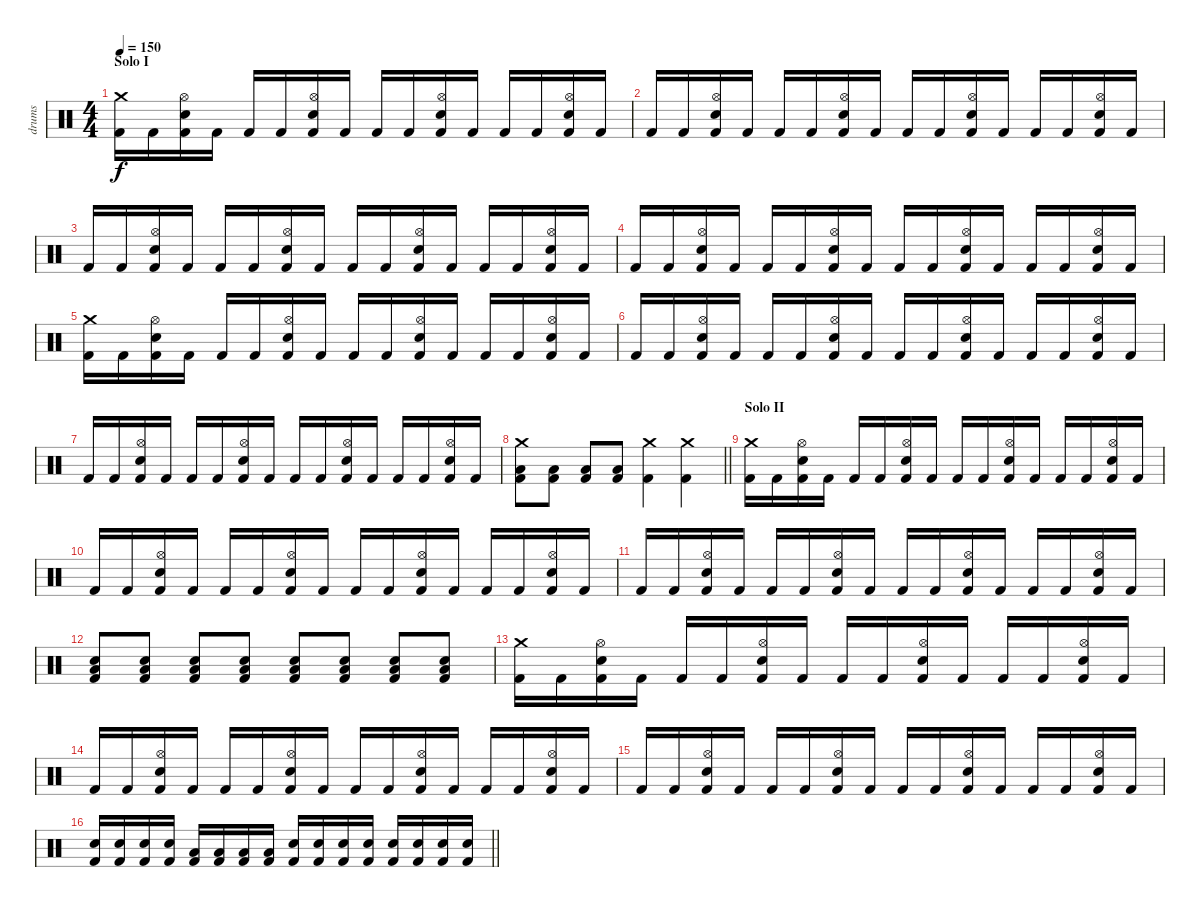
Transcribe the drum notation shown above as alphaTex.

\track ("drums" "drums") {instrument percussion}
\staff {score}
\articulation defaults
\ts (4 4)
\section ("" "Solo I")
\tempo 150
\clef neutral
\ks c
("Crash medium (hit)" "Kick (hit) 2").16{dy f} "Kick (hit) 2".16 ("Hi-Hat (open)" "Electric Snare (hit)" "Kick (hit) 2").16 "Kick (hit) 2".16 "Kick (hit) 2".16 "Kick (hit) 2".16 ("Hi-Hat (open)" "Electric Snare (hit)" "Kick (hit) 2").16 "Kick (hit) 2".16 "Kick (hit) 2".16 "Kick (hit) 2".16 ("Hi-Hat (open)" "Electric Snare (hit)" "Kick (hit) 2").16 "Kick (hit) 2".16 "Kick (hit) 2".16 "Kick (hit) 2".16 ("Hi-Hat (open)" "Electric Snare (hit)" "Kick (hit) 2").16 "Kick (hit) 2".16 |
"Kick (hit) 2".16 "Kick (hit) 2".16 ("Hi-Hat (open)" "Electric Snare (hit)" "Kick (hit) 2").16 "Kick (hit) 2".16 "Kick (hit) 2".16 "Kick (hit) 2".16 ("Hi-Hat (open)" "Electric Snare (hit)" "Kick (hit) 2").16 "Kick (hit) 2".16 "Kick (hit) 2".16 "Kick (hit) 2".16 ("Hi-Hat (open)" "Electric Snare (hit)" "Kick (hit) 2").16 "Kick (hit) 2".16 "Kick (hit) 2".16 "Kick (hit) 2".16 ("Hi-Hat (open)" "Electric Snare (hit)" "Kick (hit) 2").16 "Kick (hit) 2".16 |
"Kick (hit) 2".16 "Kick (hit) 2".16 ("Hi-Hat (open)" "Electric Snare (hit)" "Kick (hit) 2").16 "Kick (hit) 2".16 "Kick (hit) 2".16 "Kick (hit) 2".16 ("Hi-Hat (open)" "Electric Snare (hit)" "Kick (hit) 2").16 "Kick (hit) 2".16 "Kick (hit) 2".16 "Kick (hit) 2".16 ("Hi-Hat (open)" "Electric Snare (hit)" "Kick (hit) 2").16 "Kick (hit) 2".16 "Kick (hit) 2".16 "Kick (hit) 2".16 ("Hi-Hat (open)" "Electric Snare (hit)" "Kick (hit) 2").16 "Kick (hit) 2".16 |
"Kick (hit) 2".16 "Kick (hit) 2".16 ("Hi-Hat (open)" "Electric Snare (hit)" "Kick (hit) 2").16 "Kick (hit) 2".16 "Kick (hit) 2".16 "Kick (hit) 2".16 ("Hi-Hat (open)" "Electric Snare (hit)" "Kick (hit) 2").16 "Kick (hit) 2".16 "Kick (hit) 2".16 "Kick (hit) 2".16 ("Hi-Hat (open)" "Electric Snare (hit)" "Kick (hit) 2").16 "Kick (hit) 2".16 "Kick (hit) 2".16 "Kick (hit) 2".16 ("Hi-Hat (open)" "Electric Snare (hit)" "Kick (hit) 2").16 "Kick (hit) 2".16 |
("Crash medium (hit)" "Kick (hit) 2").16 "Kick (hit) 2".16 ("Hi-Hat (open)" "Electric Snare (hit)" "Kick (hit) 2").16 "Kick (hit) 2".16 "Kick (hit) 2".16 "Kick (hit) 2".16 ("Hi-Hat (open)" "Electric Snare (hit)" "Kick (hit) 2").16 "Kick (hit) 2".16 "Kick (hit) 2".16 "Kick (hit) 2".16 ("Hi-Hat (open)" "Electric Snare (hit)" "Kick (hit) 2").16 "Kick (hit) 2".16 "Kick (hit) 2".16 "Kick (hit) 2".16 ("Hi-Hat (open)" "Electric Snare (hit)" "Kick (hit) 2").16 "Kick (hit) 2".16 |
"Kick (hit) 2".16 "Kick (hit) 2".16 ("Hi-Hat (open)" "Electric Snare (hit)" "Kick (hit) 2").16 "Kick (hit) 2".16 "Kick (hit) 2".16 "Kick (hit) 2".16 ("Hi-Hat (open)" "Electric Snare (hit)" "Kick (hit) 2").16 "Kick (hit) 2".16 "Kick (hit) 2".16 "Kick (hit) 2".16 ("Hi-Hat (open)" "Electric Snare (hit)" "Kick (hit) 2").16 "Kick (hit) 2".16 "Kick (hit) 2".16 "Kick (hit) 2".16 ("Hi-Hat (open)" "Electric Snare (hit)" "Kick (hit) 2").16 "Kick (hit) 2".16 |
"Kick (hit) 2".16 "Kick (hit) 2".16 ("Hi-Hat (open)" "Electric Snare (hit)" "Kick (hit) 2").16 "Kick (hit) 2".16 "Kick (hit) 2".16 "Kick (hit) 2".16 ("Hi-Hat (open)" "Electric Snare (hit)" "Kick (hit) 2").16 "Kick (hit) 2".16 "Kick (hit) 2".16 "Kick (hit) 2".16 ("Hi-Hat (open)" "Electric Snare (hit)" "Kick (hit) 2").16 "Kick (hit) 2".16 "Kick (hit) 2".16 "Kick (hit) 2".16 ("Hi-Hat (open)" "Electric Snare (hit)" "Kick (hit) 2").16 "Kick (hit) 2".16 |
\barLineRight lightlight
("Crash medium (hit)" "Low Tom (hit)" "Kick (hit) 2").8 ("Low Tom (hit)" "Kick (hit) 2").8 ("Low Tom (hit)" "Kick (hit) 2").8 ("Low Tom (hit)" "Kick (hit) 2").8 ("Crash medium (hit)" "Kick (hit) 2").4 ("Crash medium (hit)" "Kick (hit) 2").4 |
\section ("" "Solo II")
("Crash medium (hit)" "Kick (hit) 2").16 "Kick (hit) 2".16 ("Hi-Hat (open)" "Electric Snare (hit)" "Kick (hit) 2").16 "Kick (hit) 2".16 "Kick (hit) 2".16 "Kick (hit) 2".16 ("Hi-Hat (open)" "Electric Snare (hit)" "Kick (hit) 2").16 "Kick (hit) 2".16 "Kick (hit) 2".16 "Kick (hit) 2".16 ("Hi-Hat (open)" "Electric Snare (hit)" "Kick (hit) 2").16 "Kick (hit) 2".16 "Kick (hit) 2".16 "Kick (hit) 2".16 ("Hi-Hat (open)" "Electric Snare (hit)" "Kick (hit) 2").16 "Kick (hit) 2".16 |
"Kick (hit) 2".16 "Kick (hit) 2".16 ("Hi-Hat (open)" "Electric Snare (hit)" "Kick (hit) 2").16 "Kick (hit) 2".16 "Kick (hit) 2".16 "Kick (hit) 2".16 ("Hi-Hat (open)" "Electric Snare (hit)" "Kick (hit) 2").16 "Kick (hit) 2".16 "Kick (hit) 2".16 "Kick (hit) 2".16 ("Hi-Hat (open)" "Electric Snare (hit)" "Kick (hit) 2").16 "Kick (hit) 2".16 "Kick (hit) 2".16 "Kick (hit) 2".16 ("Hi-Hat (open)" "Electric Snare (hit)" "Kick (hit) 2").16 "Kick (hit) 2".16 |
"Kick (hit) 2".16 "Kick (hit) 2".16 ("Hi-Hat (open)" "Electric Snare (hit)" "Kick (hit) 2").16 "Kick (hit) 2".16 "Kick (hit) 2".16 "Kick (hit) 2".16 ("Hi-Hat (open)" "Electric Snare (hit)" "Kick (hit) 2").16 "Kick (hit) 2".16 "Kick (hit) 2".16 "Kick (hit) 2".16 ("Hi-Hat (open)" "Electric Snare (hit)" "Kick (hit) 2").16 "Kick (hit) 2".16 "Kick (hit) 2".16 "Kick (hit) 2".16 ("Hi-Hat (open)" "Electric Snare (hit)" "Kick (hit) 2").16 "Kick (hit) 2".16 |
("Electric Snare (hit)" "Low Tom (hit)" "Kick (hit) 2").8 ("Electric Snare (hit)" "Low Tom (hit)" "Kick (hit) 2").8 ("Electric Snare (hit)" "Low Tom (hit)" "Kick (hit) 2").8 ("Electric Snare (hit)" "Low Tom (hit)" "Kick (hit) 2").8 ("Electric Snare (hit)" "Low Tom (hit)" "Kick (hit) 2").8 ("Electric Snare (hit)" "Low Tom (hit)" "Kick (hit) 2").8 ("Electric Snare (hit)" "Low Tom (hit)" "Kick (hit) 2").8 ("Electric Snare (hit)" "Low Tom (hit)" "Kick (hit) 2").8 |
("Crash medium (hit)" "Kick (hit) 2").16 "Kick (hit) 2".16 ("Hi-Hat (open)" "Electric Snare (hit)" "Kick (hit) 2").16 "Kick (hit) 2".16 "Kick (hit) 2".16 "Kick (hit) 2".16 ("Hi-Hat (open)" "Electric Snare (hit)" "Kick (hit) 2").16 "Kick (hit) 2".16 "Kick (hit) 2".16 "Kick (hit) 2".16 ("Hi-Hat (open)" "Electric Snare (hit)" "Kick (hit) 2").16 "Kick (hit) 2".16 "Kick (hit) 2".16 "Kick (hit) 2".16 ("Hi-Hat (open)" "Electric Snare (hit)" "Kick (hit) 2").16 "Kick (hit) 2".16 |
"Kick (hit) 2".16 "Kick (hit) 2".16 ("Hi-Hat (open)" "Electric Snare (hit)" "Kick (hit) 2").16 "Kick (hit) 2".16 "Kick (hit) 2".16 "Kick (hit) 2".16 ("Hi-Hat (open)" "Electric Snare (hit)" "Kick (hit) 2").16 "Kick (hit) 2".16 "Kick (hit) 2".16 "Kick (hit) 2".16 ("Hi-Hat (open)" "Electric Snare (hit)" "Kick (hit) 2").16 "Kick (hit) 2".16 "Kick (hit) 2".16 "Kick (hit) 2".16 ("Hi-Hat (open)" "Electric Snare (hit)" "Kick (hit) 2").16 "Kick (hit) 2".16 |
"Kick (hit) 2".16 "Kick (hit) 2".16 ("Hi-Hat (open)" "Electric Snare (hit)" "Kick (hit) 2").16 "Kick (hit) 2".16 "Kick (hit) 2".16 "Kick (hit) 2".16 ("Hi-Hat (open)" "Electric Snare (hit)" "Kick (hit) 2").16 "Kick (hit) 2".16 "Kick (hit) 2".16 "Kick (hit) 2".16 ("Hi-Hat (open)" "Electric Snare (hit)" "Kick (hit) 2").16 "Kick (hit) 2".16 "Kick (hit) 2".16 "Kick (hit) 2".16 ("Hi-Hat (open)" "Electric Snare (hit)" "Kick (hit) 2").16 "Kick (hit) 2".16 |
\barLineRight lightlight
("Electric Snare (hit)" "Kick (hit) 2").16 ("Electric Snare (hit)" "Kick (hit) 2").16 ("Electric Snare (hit)" "Kick (hit) 2").16 ("Electric Snare (hit)" "Kick (hit) 2").16 ("Low Tom (hit)" "Kick (hit) 2").16 ("Low Tom (hit)" "Kick (hit) 2").16 ("Low Tom (hit)" "Kick (hit) 2").16 ("Low Tom (hit)" "Kick (hit) 2").16 ("Snare (hit) 2" "Kick (hit) 2").16 ("Snare (hit) 2" "Kick (hit) 2").16 ("Snare (hit) 2" "Kick (hit) 2").16 ("Snare (hit) 2" "Kick (hit) 2").16 ("Electric Snare (hit)" "Kick (hit) 2").16 ("Electric Snare (hit)" "Kick (hit) 2").16 ("Electric Snare (hit)" "Kick (hit) 2").16 ("Electric Snare (hit)" "Kick (hit) 2").16
